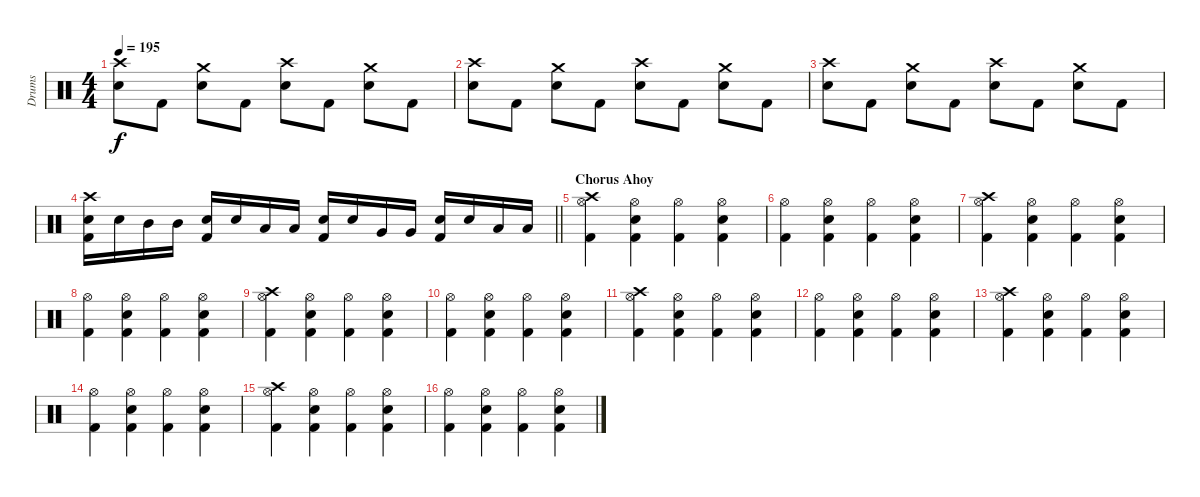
\track ("Drums" "Drums") {instrument percussion}
\staff {score}
\articulation defaults
\ts (4 4)
\tempo 195
\clef neutral
\ks c
("Crash high (hit)" "Snare (hit) 2").8{dy f} "Kick (hit) 2".8 ("Crash medium (hit)" "Snare (hit) 2").8 "Kick (hit) 2".8 ("Crash high (hit)" "Snare (hit) 2").8 "Kick (hit) 2".8 ("Crash medium (hit)" "Snare (hit) 2").8 "Kick (hit) 2".8 |
("Crash high (hit)" "Snare (hit) 2").8 "Kick (hit) 2".8 ("Crash medium (hit)" "Snare (hit) 2").8 "Kick (hit) 2".8 ("Crash high (hit)" "Snare (hit) 2").8 "Kick (hit) 2".8 ("Crash medium (hit)" "Snare (hit) 2").8 "Kick (hit) 2".8 |
("Crash high (hit)" "Snare (hit) 2").8 "Kick (hit) 2".8 ("Crash medium (hit)" "Snare (hit) 2").8 "Kick (hit) 2".8 ("Crash high (hit)" "Snare (hit) 2").8 "Kick (hit) 2".8 ("Crash medium (hit)" "Snare (hit) 2").8 "Kick (hit) 2".8 |
\barLineRight lightlight
("Crash high (hit)" "Snare (hit) 2" "Kick (hit) 2").16 "Snare (hit) 2".16 "Mid Tom (hit)".16 "Mid Tom (hit)".16 ("Snare (hit) 2" "Kick (hit) 2").16 "Snare (hit) 2".16 "Low Tom (hit)".16 "Low Tom (hit)".16 ("Snare (hit) 2" "Kick (hit) 2").16 "Snare (hit) 2".16 "Very Low Tom (hit)".16 "Very Low Tom (hit)".16 ("Snare (hit) 2" "Kick (hit) 2").16 "Snare (hit) 2".16 "Low Floor Tom (hit)".16 "Low Floor Tom (hit)".16 |
\section ("" "Chorus Ahoy")
("Crash high (hit)" "Hi-Hat (open)" "Kick (hit) 2").4 ("Hi-Hat (open)" "Snare (hit) 2" "Kick (hit) 2").4 ("Hi-Hat (open)" "Kick (hit) 2").4 ("Hi-Hat (open)" "Snare (hit) 2" "Kick (hit) 2").4 |
("Hi-Hat (open)" "Kick (hit) 2").4 ("Hi-Hat (open)" "Snare (hit) 2" "Kick (hit) 2").4 ("Hi-Hat (open)" "Kick (hit) 2").4 ("Hi-Hat (open)" "Snare (hit) 2" "Kick (hit) 2").4 |
("Crash high (hit)" "Hi-Hat (open)" "Kick (hit) 2").4 ("Hi-Hat (open)" "Snare (hit) 2" "Kick (hit) 2").4 ("Hi-Hat (open)" "Kick (hit) 2").4 ("Hi-Hat (open)" "Snare (hit) 2" "Kick (hit) 2").4 |
("Hi-Hat (open)" "Kick (hit) 2").4 ("Hi-Hat (open)" "Snare (hit) 2" "Kick (hit) 2").4 ("Hi-Hat (open)" "Kick (hit) 2").4 ("Hi-Hat (open)" "Snare (hit) 2" "Kick (hit) 2").4 |
("Crash high (hit)" "Hi-Hat (open)" "Kick (hit) 2").4 ("Hi-Hat (open)" "Snare (hit) 2" "Kick (hit) 2").4 ("Hi-Hat (open)" "Kick (hit) 2").4 ("Hi-Hat (open)" "Snare (hit) 2" "Kick (hit) 2").4 |
("Hi-Hat (open)" "Kick (hit) 2").4 ("Hi-Hat (open)" "Snare (hit) 2" "Kick (hit) 2").4 ("Hi-Hat (open)" "Kick (hit) 2").4 ("Hi-Hat (open)" "Snare (hit) 2" "Kick (hit) 2").4 |
("Crash high (hit)" "Hi-Hat (open)" "Kick (hit) 2").4 ("Hi-Hat (open)" "Snare (hit) 2" "Kick (hit) 2").4 ("Hi-Hat (open)" "Kick (hit) 2").4 ("Hi-Hat (open)" "Snare (hit) 2" "Kick (hit) 2").4 |
("Hi-Hat (open)" "Kick (hit) 2").4 ("Hi-Hat (open)" "Snare (hit) 2" "Kick (hit) 2").4 ("Hi-Hat (open)" "Kick (hit) 2").4 ("Hi-Hat (open)" "Snare (hit) 2" "Kick (hit) 2").4 |
("Crash high (hit)" "Hi-Hat (open)" "Kick (hit) 2").4 ("Hi-Hat (open)" "Snare (hit) 2" "Kick (hit) 2").4 ("Hi-Hat (open)" "Kick (hit) 2").4 ("Hi-Hat (open)" "Snare (hit) 2" "Kick (hit) 2").4 |
("Hi-Hat (open)" "Kick (hit) 2").4 ("Hi-Hat (open)" "Snare (hit) 2" "Kick (hit) 2").4 ("Hi-Hat (open)" "Kick (hit) 2").4 ("Hi-Hat (open)" "Snare (hit) 2" "Kick (hit) 2").4 |
("Crash high (hit)" "Hi-Hat (open)" "Kick (hit) 2").4 ("Hi-Hat (open)" "Snare (hit) 2" "Kick (hit) 2").4 ("Hi-Hat (open)" "Kick (hit) 2").4 ("Hi-Hat (open)" "Snare (hit) 2" "Kick (hit) 2").4 |
("Hi-Hat (open)" "Kick (hit) 2").4 ("Hi-Hat (open)" "Snare (hit) 2" "Kick (hit) 2").4 ("Hi-Hat (open)" "Kick (hit) 2").4 ("Hi-Hat (open)" "Snare (hit) 2" "Kick (hit) 2").4
